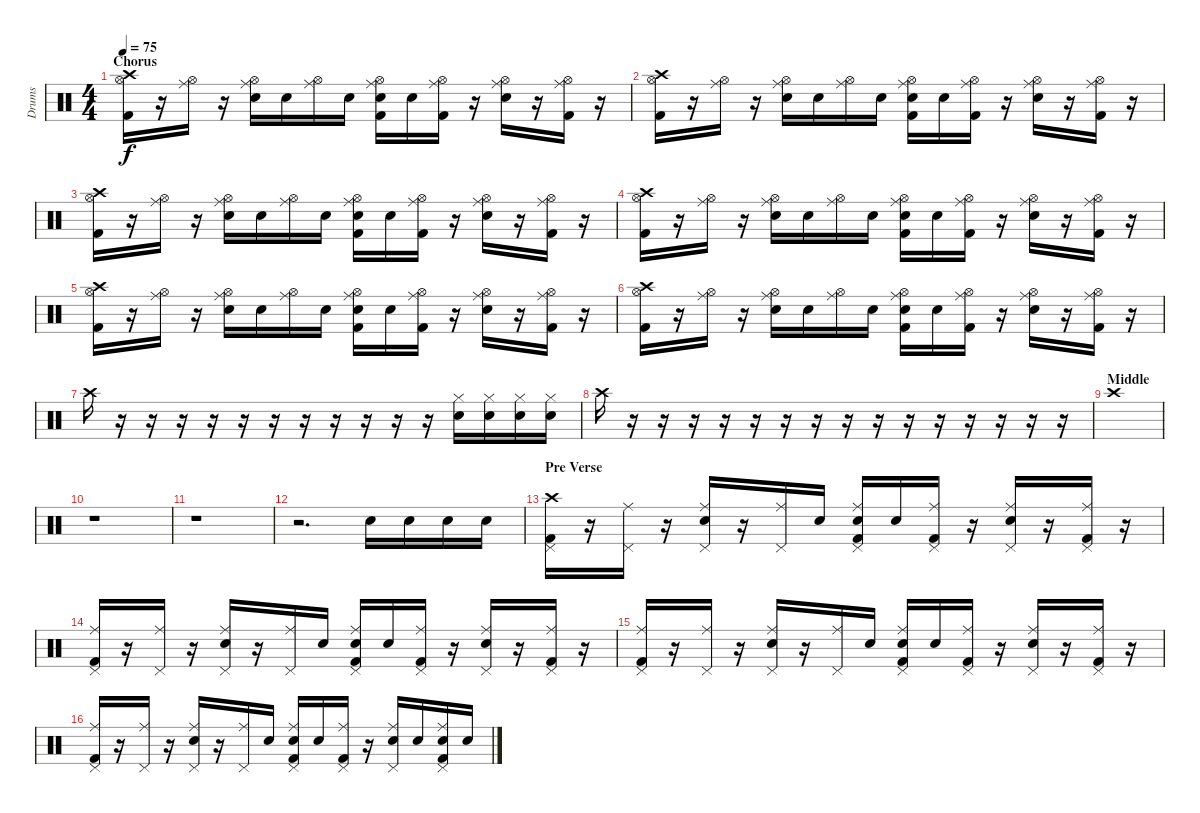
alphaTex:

\track ("Drums" "Drums") {instrument percussion}
\staff {score}
\articulation defaults
\ts (4 4)
\section ("" "Chorus")
\tempo 75
\clef neutral
\ks c
("Crash high (hit)" "Kick (hit) 2" "Hi-Hat (open)").16{dy f} r.16 ("Ride (middle)" "Hi-Hat (open)").16 r.16 ("Ride (middle)" "Electric Snare (hit)" "Hi-Hat (open)").16 "Electric Snare (hit)".16 ("Ride (middle)" "Hi-Hat (open)").16 "Snare (hit) 2".16 ("Ride (middle)" "Electric Snare (hit)" "Kick (hit) 2" "Hi-Hat (open)").16 "Electric Snare (hit)".16 ("Ride (middle)" "Kick (hit) 2" "Hi-Hat (open)").16 r.16 ("Ride (middle)" "Electric Snare (hit)" "Hi-Hat (open)").16 r.16 ("Ride (middle)" "Kick (hit) 2" "Hi-Hat (open)").16 r.16 |
("Crash high (hit)" "Kick (hit) 2" "Hi-Hat (open)").16 r.16 ("Ride (middle)" "Hi-Hat (open)").16 r.16 ("Ride (middle)" "Electric Snare (hit)" "Hi-Hat (open)").16 "Electric Snare (hit)".16 ("Ride (middle)" "Hi-Hat (open)").16 "Snare (hit) 2".16 ("Ride (middle)" "Electric Snare (hit)" "Kick (hit) 2" "Hi-Hat (open)").16 "Electric Snare (hit)".16 ("Ride (middle)" "Kick (hit) 2" "Hi-Hat (open)").16 r.16 ("Ride (middle)" "Electric Snare (hit)" "Hi-Hat (open)").16 r.16 ("Ride (middle)" "Kick (hit) 2" "Hi-Hat (open)").16 r.16 |
("Crash high (hit)" "Kick (hit) 2" "Hi-Hat (open)").16 r.16 ("Ride (middle)" "Hi-Hat (open)").16 r.16 ("Ride (middle)" "Electric Snare (hit)" "Hi-Hat (open)").16 "Electric Snare (hit)".16 ("Ride (middle)" "Hi-Hat (open)").16 "Snare (hit) 2".16 ("Ride (middle)" "Electric Snare (hit)" "Kick (hit) 2" "Hi-Hat (open)").16 "Electric Snare (hit)".16 ("Ride (middle)" "Kick (hit) 2" "Hi-Hat (open)").16 r.16 ("Ride (middle)" "Electric Snare (hit)" "Hi-Hat (open)").16 r.16 ("Ride (middle)" "Kick (hit) 2" "Hi-Hat (open)").16 r.16 |
("Crash high (hit)" "Kick (hit) 2" "Hi-Hat (open)").16 r.16 ("Ride (middle)" "Hi-Hat (open)").16 r.16 ("Ride (middle)" "Electric Snare (hit)" "Hi-Hat (open)").16 "Electric Snare (hit)".16 ("Ride (middle)" "Hi-Hat (open)").16 "Snare (hit) 2".16 ("Ride (middle)" "Electric Snare (hit)" "Kick (hit) 2" "Hi-Hat (open)").16 "Electric Snare (hit)".16 ("Ride (middle)" "Kick (hit) 2" "Hi-Hat (open)").16 r.16 ("Ride (middle)" "Electric Snare (hit)" "Hi-Hat (open)").16 r.16 ("Ride (middle)" "Kick (hit) 2" "Hi-Hat (open)").16 r.16 |
("Crash high (hit)" "Kick (hit) 2" "Hi-Hat (open)").16 r.16 ("Ride (middle)" "Hi-Hat (open)").16 r.16 ("Ride (middle)" "Electric Snare (hit)" "Hi-Hat (open)").16 "Electric Snare (hit)".16 ("Ride (middle)" "Hi-Hat (open)").16 "Snare (hit) 2".16 ("Ride (middle)" "Electric Snare (hit)" "Kick (hit) 2" "Hi-Hat (open)").16 "Electric Snare (hit)".16 ("Ride (middle)" "Kick (hit) 2" "Hi-Hat (open)").16 r.16 ("Ride (middle)" "Electric Snare (hit)" "Hi-Hat (open)").16 r.16 ("Ride (middle)" "Kick (hit) 2" "Hi-Hat (open)").16 r.16 |
("Crash high (hit)" "Kick (hit) 2" "Hi-Hat (open)").16 r.16 ("Ride (middle)" "Hi-Hat (open)").16 r.16 ("Ride (middle)" "Electric Snare (hit)" "Hi-Hat (open)").16 "Electric Snare (hit)".16 ("Ride (middle)" "Hi-Hat (open)").16 "Snare (hit) 2".16 ("Ride (middle)" "Electric Snare (hit)" "Kick (hit) 2" "Hi-Hat (open)").16 "Electric Snare (hit)".16 ("Ride (middle)" "Kick (hit) 2" "Hi-Hat (open)").16 r.16 ("Ride (middle)" "Electric Snare (hit)" "Hi-Hat (open)").16 r.16 ("Ride (middle)" "Kick (hit) 2" "Hi-Hat (open)").16 r.16 |
"Crash high (hit)".16 r.16 r.16 r.16 r.16 r.16 r.16 r.16 r.16 r.16 r.16 r.16 ("Hi-Hat (closed)" "Electric Snare (hit)").16 ("Hi-Hat (closed)" "Electric Snare (hit)").16 ("Hi-Hat (closed)" "Electric Snare (hit)").16 ("Hi-Hat (closed)" "Electric Snare (hit)").16 |
"Crash high (hit)".16 r.16 r.16 r.16 r.16 r.16 r.16 r.16 r.16 r.16 r.16 r.16 r.16 r.16 r.16 r.16 |
\section ("" "Middle")
"Crash high (hit)".1 |
r.1 |
r.1 |
r.2{d} "Electric Snare (hit)".16 "Electric Snare (hit)".16 "Electric Snare (hit)".16 "Electric Snare (hit)".16 |
\section ("" "Pre Verse")
("Crash high (hit)" "Kick (hit) 2" "Pedal Hi-Hat (hit)").16 r.16 ("Ride (middle)" "Pedal Hi-Hat (hit)").16 r.16 ("Ride (middle)" "Electric Snare (hit)" "Pedal Hi-Hat (hit)").16 r.16 ("Ride (middle)" "Pedal Hi-Hat (hit)").16 "Snare (hit) 2".16 ("Ride (middle)" "Electric Snare (hit)" "Kick (hit) 2" "Pedal Hi-Hat (hit)").16 "Electric Snare (hit)".16 ("Ride (middle)" "Kick (hit) 2" "Pedal Hi-Hat (hit)").16 r.16 ("Ride (middle)" "Electric Snare (hit)" "Pedal Hi-Hat (hit)").16 r.16 ("Ride (middle)" "Kick (hit) 2" "Pedal Hi-Hat (hit)").16 r.16 |
("Ride (middle)" "Kick (hit) 2" "Pedal Hi-Hat (hit)").16 r.16 ("Ride (middle)" "Pedal Hi-Hat (hit)").16 r.16 ("Ride (middle)" "Electric Snare (hit)" "Pedal Hi-Hat (hit)").16 r.16 ("Ride (middle)" "Pedal Hi-Hat (hit)").16 "Snare (hit) 2".16 ("Ride (middle)" "Electric Snare (hit)" "Kick (hit) 2" "Pedal Hi-Hat (hit)").16 "Electric Snare (hit)".16 ("Ride (middle)" "Kick (hit) 2" "Pedal Hi-Hat (hit)").16 r.16 ("Ride (middle)" "Electric Snare (hit)" "Pedal Hi-Hat (hit)").16 r.16 ("Ride (middle)" "Kick (hit) 2" "Pedal Hi-Hat (hit)").16 r.16 |
("Ride (middle)" "Kick (hit) 2" "Pedal Hi-Hat (hit)").16 r.16 ("Ride (middle)" "Pedal Hi-Hat (hit)").16 r.16 ("Ride (middle)" "Electric Snare (hit)" "Pedal Hi-Hat (hit)").16 r.16 ("Ride (middle)" "Pedal Hi-Hat (hit)").16 "Snare (hit) 2".16 ("Ride (middle)" "Electric Snare (hit)" "Kick (hit) 2" "Pedal Hi-Hat (hit)").16 "Electric Snare (hit)".16 ("Ride (middle)" "Kick (hit) 2" "Pedal Hi-Hat (hit)").16 r.16 ("Ride (middle)" "Electric Snare (hit)" "Pedal Hi-Hat (hit)").16 r.16 ("Ride (middle)" "Kick (hit) 2" "Pedal Hi-Hat (hit)").16 r.16 |
("Ride (middle)" "Kick (hit) 2" "Pedal Hi-Hat (hit)").16 r.16 ("Ride (middle)" "Pedal Hi-Hat (hit)").16 r.16 ("Ride (middle)" "Electric Snare (hit)" "Pedal Hi-Hat (hit)").16 r.16 ("Ride (middle)" "Pedal Hi-Hat (hit)").16 "Snare (hit) 2".16 ("Ride (middle)" "Electric Snare (hit)" "Kick (hit) 2" "Pedal Hi-Hat (hit)").16 "Electric Snare (hit)".16 ("Ride (middle)" "Kick (hit) 2" "Pedal Hi-Hat (hit)").16 r.16 ("Ride (middle)" "Electric Snare (hit)" "Pedal Hi-Hat (hit)").16 "Electric Snare (hit)".16 ("Ride (middle)" "Electric Snare (hit)" "Kick (hit) 2" "Pedal Hi-Hat (hit)").16 "Electric Snare (hit)".16
